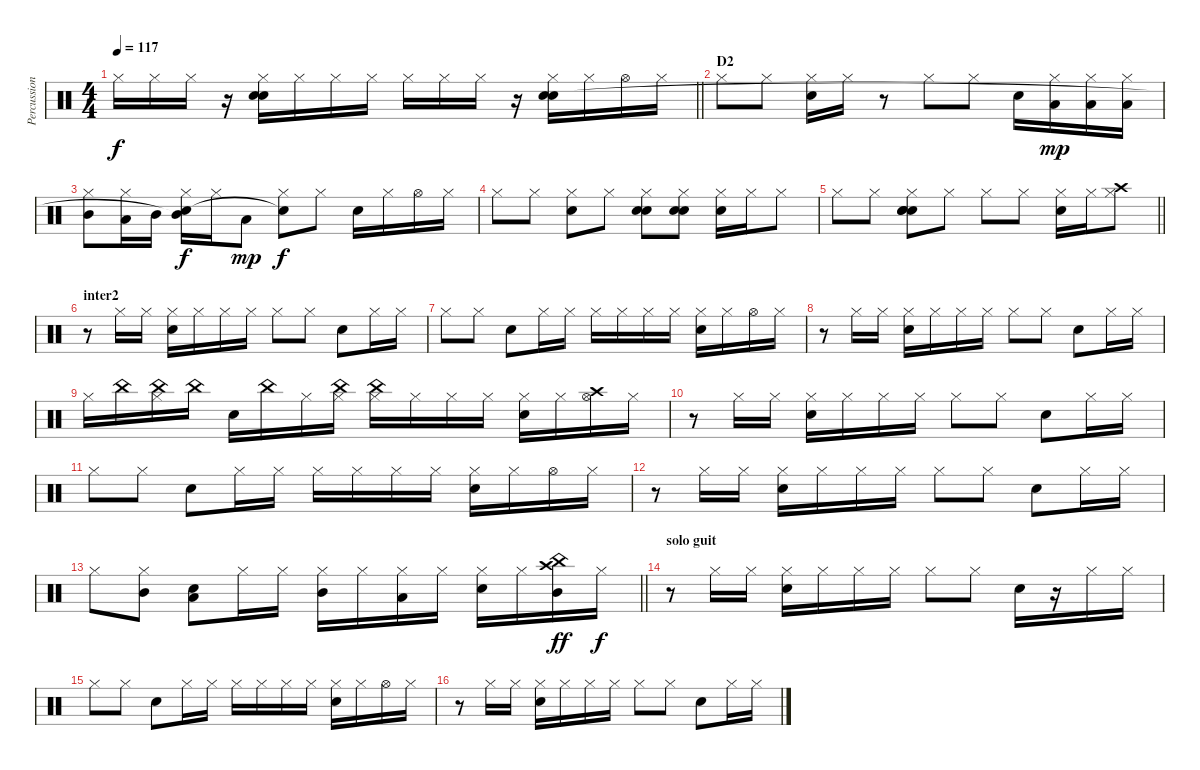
\track ("Percussions" "Percussion") {instrument percussion}
\staff {score}
\articulation defaults
\ts (4 4)
\tempo 117
\clef neutral
\barLineRight lightlight
\ks c "Hi-Hat (closed)".16{dy f} "Hi-Hat (closed)".16 "Hi-Hat (closed)".16
r.16 ("Hi-Hat (closed)" "Electric Snare (hit)" "Hand Clap (hit)").16 "Hi-Hat (closed)".16 "Hi-Hat (closed)".16 "Hi-Hat (closed)".16 "Hi-Hat (closed)".16 "Hi-Hat (closed)".16 "Hi-Hat (closed)".16 r.16 ("Hi-Hat (closed)" "Hand Clap (hit)" "Electric Snare (hit)").16 "Hi-Hat (closed)".16 "Hi-Hat (open)".16 "Hi-Hat (closed)".16 |
\section ("" "D2")
"Hi-Hat (closed)".8 "Hi-Hat (closed)".8 ("Hi-Hat (closed)" "Electric Snare (hit)").16 "Hi-Hat (closed)".16 r.8 "Hi-Hat (closed)".8 "Hi-Hat (closed)".8 "Electric Snare (hit)".16 ("Hi-Hat (closed)" "Low Tom (hit)").16{dy mp} ("Hi-Hat (closed)" "Low Tom (hit)").16 ("Hi-Hat (closed)" "Low Tom (hit)").16 |
("Hi-Hat (closed)" "Mid Tom (hit)").8 ("Hi-Hat (closed)" "Low Tom (hit)").16 "Mid Tom (hit)".16 ("Hi-Hat (closed)" "Electric Snare (hit)" "Mid Tom (hit)"{t}).16{dy f} "Hi-Hat (closed)".16 "Low Tom (hit)".8{dy mp} ("Hi-Hat (closed)" "Snare (hit)"{t}).8{dy f} "Hi-Hat (closed)".8 "Electric Snare (hit)".16 "Hi-Hat (closed)".16 "Hi-Hat (open)".16 "Hi-Hat (closed)".16 |
"Hi-Hat (closed)".8 "Hi-Hat (closed)".8 ("Hi-Hat (closed)" "Electric Snare (hit)").8 "Hi-Hat (closed)".8 ("Hi-Hat (closed)" "Snare (hit) 2" "Hand Clap (hit)").8 ("Hi-Hat (closed)" "Snare (hit) 2" "Hand Clap (hit)").8 ("Hi-Hat (closed)" "Electric Snare (hit)").16 "Hi-Hat (closed)".16 "Hi-Hat (closed)".8 |
\barLineRight lightlight "Hi-Hat (closed)".8 "Hi-Hat (closed)".8
("Hi-Hat (closed)" "Electric Snare (hit)" "Snare (hit) 2" "Hand Clap (hit)").8 "Hi-Hat (closed)".8 "Hi-Hat (closed)".8 "Hi-Hat (closed)".8 ("Hi-Hat (closed)" "Electric Snare (hit)").16 "Hi-Hat (closed)".16 ("Hi-Hat (closed)" "Crash high (hit)").8 |
\section ("" "inter2")
r.8 "Hi-Hat (closed)".16 "Hi-Hat (closed)".16 ("Hi-Hat (closed)" "Electric Snare (hit)").16 "Hi-Hat (closed)".16 "Hi-Hat (closed)".16 "Hi-Hat (closed)".16 "Hi-Hat (closed)".8 "Hi-Hat (closed)".8 "Electric Snare (hit)".8 "Hi-Hat (closed)".16 "Hi-Hat (closed)".16 |
"Hi-Hat (closed)".8 "Hi-Hat (closed)".8 "Electric Snare (hit)".8 "Hi-Hat (closed)".16 "Hi-Hat (closed)".16 "Hi-Hat (closed)".16 "Hi-Hat (closed)".16 "Hi-Hat (closed)".16 "Hi-Hat (closed)".16 ("Hi-Hat (closed)" "Electric Snare (hit)").16 "Hi-Hat (closed)".16 "Hi-Hat (open)".16 "Hi-Hat (closed)".16 |
r.8 "Hi-Hat (closed)".16 "Hi-Hat (closed)".16 ("Hi-Hat (closed)" "Electric Snare (hit)").16 "Hi-Hat (closed)".16 "Hi-Hat (closed)".16 "Hi-Hat (closed)".16 "Hi-Hat (closed)".8 "Hi-Hat (closed)".8 "Electric Snare (hit)".8 "Hi-Hat (closed)".16 "Hi-Hat (closed)".16 |
"Hi-Hat (closed)".16 "China (hit)".16 ("Hi-Hat (closed)" "China (hit)").16 "China (hit)".16 "Electric Snare (hit)".16 "China (hit)".16 "Hi-Hat (closed)".16 ("Hi-Hat (closed)" "China (hit)").16 ("Hi-Hat (closed)" "China (hit)").16 "Hi-Hat (closed)".16 "Hi-Hat (closed)".16 "Hi-Hat (closed)".16 ("Hi-Hat (closed)" "Electric Snare (hit)").16 "Hi-Hat (closed)".16 ("Hi-Hat (open)" "Crash high (hit)").16 "Hi-Hat (closed)".16 |
r.8 "Hi-Hat (closed)".16 "Hi-Hat (closed)".16 ("Hi-Hat (closed)" "Electric Snare (hit)").16 "Hi-Hat (closed)".16 "Hi-Hat (closed)".16 "Hi-Hat (closed)".16 "Hi-Hat (closed)".8 "Hi-Hat (closed)".8 "Electric Snare (hit)".8 "Hi-Hat (closed)".16 "Hi-Hat (closed)".16 |
"Hi-Hat (closed)".8 "Hi-Hat (closed)".8 "Electric Snare (hit)".8 "Hi-Hat (closed)".16 "Hi-Hat (closed)".16 "Hi-Hat (closed)".16 "Hi-Hat (closed)".16 "Hi-Hat (closed)".16 "Hi-Hat (closed)".16 ("Hi-Hat (closed)" "Electric Snare (hit)").16 "Hi-Hat (closed)".16 "Hi-Hat (open)".16 "Hi-Hat (closed)".16 |
r.8 "Hi-Hat (closed)".16 "Hi-Hat (closed)".16 ("Hi-Hat (closed)" "Electric Snare (hit)").16 "Hi-Hat (closed)".16 "Hi-Hat (closed)".16 "Hi-Hat (closed)".16 "Hi-Hat (closed)".8 "Hi-Hat (closed)".8 "Electric Snare (hit)".8 "Hi-Hat (closed)".16 "Hi-Hat (closed)".16 |
\barLineRight lightlight "Hi-Hat (closed)".8
("Hi-Hat (closed)" "Mid Tom (hit)").8 ("Electric Snare (hit)" "Low Tom (hit)").8 "Hi-Hat (closed)".16 "Hi-Hat (closed)".16 ("Hi-Hat (closed)" "Mid Tom (hit)").16 "Hi-Hat (closed)".16 ("Hi-Hat (closed)" "Low Tom (hit)").16 "Hi-Hat (closed)".16 ("Hi-Hat (closed)" "Electric Snare (hit)").16 "Hi-Hat (closed)".16 ("China (hit)" "Mid Tom (hit)" "Crash high (hit)").16{dy ff} "Hi-Hat (closed)".16{dy f} |
\section ("" "solo guit")
r.8 "Hi-Hat (closed)".16 "Hi-Hat (closed)".16 ("Hi-Hat (closed)" "Electric Snare (hit)").16 "Hi-Hat (closed)".16 "Hi-Hat (closed)".16 "Hi-Hat (closed)".16 "Hi-Hat (closed)".8 "Hi-Hat (closed)".8 "Electric Snare (hit)".16 r.16 "Hi-Hat (closed)".16 "Hi-Hat (closed)".16 |
"Hi-Hat (closed)".8 "Hi-Hat (closed)".8 "Electric Snare (hit)".8 "Hi-Hat (closed)".16 "Hi-Hat (closed)".16 "Hi-Hat (closed)".16 "Hi-Hat (closed)".16 "Hi-Hat (closed)".16 "Hi-Hat (closed)".16 ("Hi-Hat (closed)" "Electric Snare (hit)").16 "Hi-Hat (closed)".16 "Hi-Hat (open)".16 "Hi-Hat (closed)".16 |
r.8 "Hi-Hat (closed)".16 "Hi-Hat (closed)".16 ("Hi-Hat (closed)" "Electric Snare (hit)").16 "Hi-Hat (closed)".16 "Hi-Hat (closed)".16 "Hi-Hat (closed)".16 "Hi-Hat (closed)".8 "Hi-Hat (closed)".8 "Electric Snare (hit)".8 "Hi-Hat (closed)".16 "Hi-Hat (closed)".16
